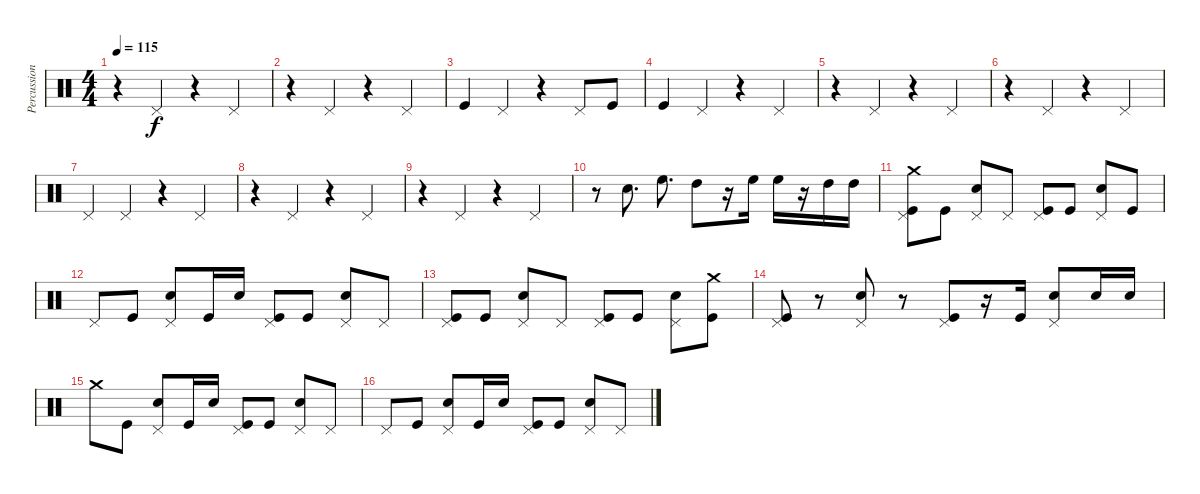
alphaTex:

\track ("Percussion" "Percussion") {instrument percussion}
\staff {score}
\articulation defaults
\ts (4 4)
\tempo 115
\clef neutral
\ks c
r.4{dy f} "Pedal Hi-Hat (hit)".4 r.4 "Pedal Hi-Hat (hit)".4 |
r.4 "Pedal Hi-Hat (hit)".4 r.4 "Pedal Hi-Hat (hit)".4 |
"Kick (hit)".4 "Pedal Hi-Hat (hit)".4 r.4 "Pedal Hi-Hat (hit)".8 "Kick (hit)".8 |
"Kick (hit)".4 "Pedal Hi-Hat (hit)".4 r.4 "Pedal Hi-Hat (hit)".4 |
r.4 "Pedal Hi-Hat (hit)".4 r.4 "Pedal Hi-Hat (hit)".4 |
r.4 "Pedal Hi-Hat (hit)".4 r.4 "Pedal Hi-Hat (hit)".4 |
"Pedal Hi-Hat (hit)".4 "Pedal Hi-Hat (hit)".4 r.4 "Pedal Hi-Hat (hit)".4 |
r.4 "Pedal Hi-Hat (hit)".4 r.4 "Pedal Hi-Hat (hit)".4 |
r.4 "Pedal Hi-Hat (hit)".4 r.4 "Pedal Hi-Hat (hit)".4 |
r.8 "Snare (hit) 2".8{d} "High Floor Tom (hit)".8{d} "High Tom (hit)".8 r.16 "High Floor Tom (hit)".16 "High Floor Tom (hit)".16 r.16 "High Tom (hit)".16 "High Tom (hit)".16 |
("Crash medium (hit)" "Pedal Hi-Hat (hit)" "Kick (hit)").8 "Kick (hit)".8 ("Pedal Hi-Hat (hit)" "Snare (hit) 2").8 "Pedal Hi-Hat (hit)".8 ("Pedal Hi-Hat (hit)" "Kick (hit)").8 "Kick (hit)".8 ("Pedal Hi-Hat (hit)" "Snare (hit) 2").8 "Kick (hit)".8 |
"Pedal Hi-Hat (hit)".8 "Kick (hit)".8 ("Pedal Hi-Hat (hit)" "Snare (hit) 2").8 "Kick (hit)".16 "Snare (hit) 2".16 ("Pedal Hi-Hat (hit)" "Kick (hit)").8 "Kick (hit)".8 ("Pedal Hi-Hat (hit)" "Snare (hit) 2").8 "Pedal Hi-Hat (hit)".8 |
("Pedal Hi-Hat (hit)" "Kick (hit)").8 "Kick (hit)".8 ("Pedal Hi-Hat (hit)" "Snare (hit) 2").8 "Pedal Hi-Hat (hit)".8 ("Pedal Hi-Hat (hit)" "Kick (hit)").8 "Kick (hit)".8 ("Pedal Hi-Hat (hit)" "Snare (hit) 2").8 ("Crash medium (hit)" "Kick (hit)").8 |
("Pedal Hi-Hat (hit)" "Kick (hit)").8 r.8 ("Pedal Hi-Hat (hit)" "Snare (hit) 2").8 r.8 ("Pedal Hi-Hat (hit)" "Kick (hit)").8 r.16 "Kick (hit)".16 ("Pedal Hi-Hat (hit)" "Snare (hit) 2").8 "Snare (hit) 2".16 "Snare (hit) 2".16 |
"Crash medium (hit)".8 "Kick (hit)".8 ("Pedal Hi-Hat (hit)" "Snare (hit) 2").8 "Kick (hit)".16 "Snare (hit) 2".16 ("Pedal Hi-Hat (hit)" "Kick (hit)").8 "Kick (hit)".8 ("Pedal Hi-Hat (hit)" "Snare (hit) 2").8 "Pedal Hi-Hat (hit)".8 |
"Pedal Hi-Hat (hit)".8 "Kick (hit)".8 ("Pedal Hi-Hat (hit)" "Snare (hit) 2").8 "Kick (hit)".16 "Snare (hit) 2".16 ("Pedal Hi-Hat (hit)" "Kick (hit)").8 "Kick (hit)".8 ("Pedal Hi-Hat (hit)" "Snare (hit) 2").8 "Pedal Hi-Hat (hit)".8
